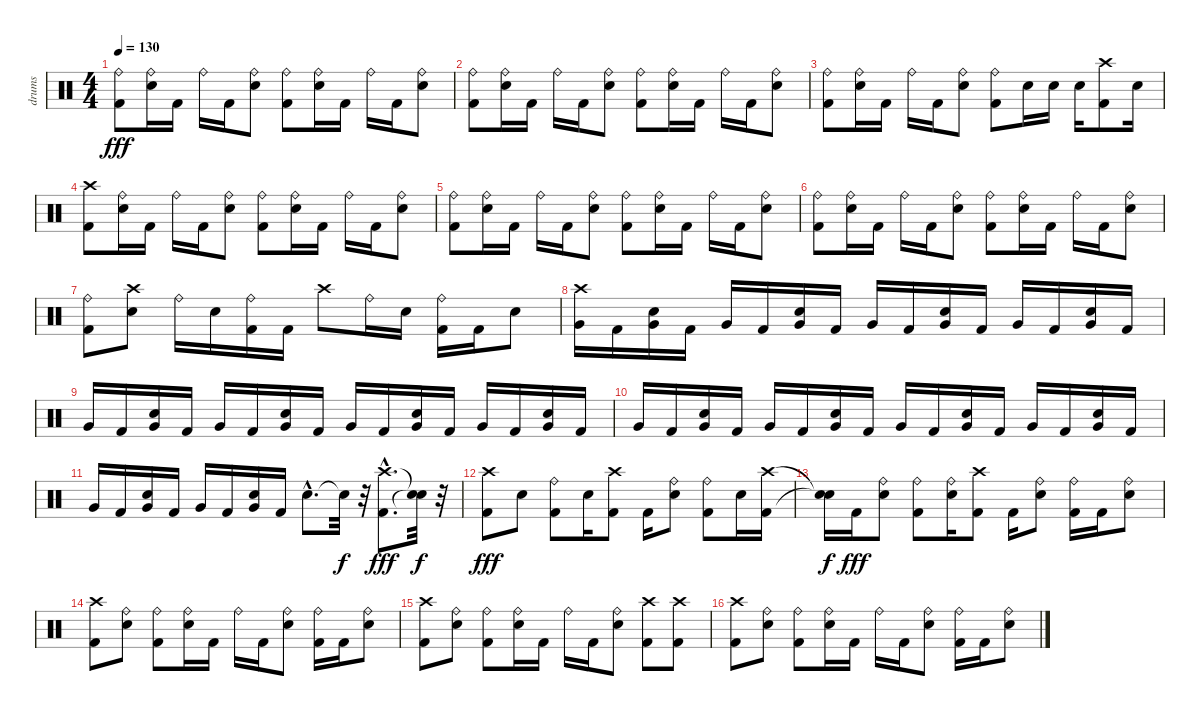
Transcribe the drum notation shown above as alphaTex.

\track ("drums" "drums") {instrument percussion}
\staff {score}
\articulation defaults
\ts (4 4)
\tempo 130
\clef neutral
\ks c
("Ride (bell)" "Kick (hit) 2").8{dy fff} ("Ride (bell)" "Snare (hit) 2").16 "Kick (hit) 2".16 "Ride (bell)".16 "Kick (hit) 2".16 ("Ride (bell)" "Snare (hit) 2").8 ("Ride (bell)" "Kick (hit) 2").8 ("Ride (bell)" "Snare (hit) 2").16 "Kick (hit) 2".16 "Ride (bell)".16 "Kick (hit) 2".16 ("Ride (bell)" "Snare (hit) 2").8 |
("Ride (bell)" "Kick (hit) 2").8 ("Ride (bell)" "Snare (hit) 2").16 "Kick (hit) 2".16 "Ride (bell)".16 "Kick (hit) 2".16 ("Ride (bell)" "Snare (hit) 2").8 ("Ride (bell)" "Kick (hit) 2").8 ("Ride (bell)" "Snare (hit) 2").16 "Kick (hit) 2".16 "Ride (bell)".16 "Kick (hit) 2".16 ("Ride (bell)" "Snare (hit) 2").8 |
("Ride (bell)" "Kick (hit) 2").8 ("Ride (bell)" "Snare (hit) 2").16 "Kick (hit) 2".16 "Ride (bell)".16 "Kick (hit) 2".16 ("Ride (bell)" "Snare (hit) 2").8 ("Ride (bell)" "Kick (hit) 2").8 "Snare (hit) 2".16 "Snare (hit) 2".16 "Snare (hit) 2".16 ("Crash high (hit)" "Kick (hit) 2").8 "Snare (hit) 2".16 |
("Crash high (hit)" "Kick (hit) 2").8 ("Ride (bell)" "Snare (hit) 2").16 "Kick (hit) 2".16 "Ride (bell)".16 "Kick (hit) 2".16 ("Ride (bell)" "Snare (hit) 2").8 ("Ride (bell)" "Kick (hit) 2").8 ("Ride (bell)" "Snare (hit) 2").16 "Kick (hit) 2".16 "Ride (bell)".16 "Kick (hit) 2".16 ("Ride (bell)" "Snare (hit) 2").8 |
("Ride (bell)" "Kick (hit) 2").8 ("Ride (bell)" "Snare (hit) 2").16 "Kick (hit) 2".16 "Ride (bell)".16 "Kick (hit) 2".16 ("Ride (bell)" "Snare (hit) 2").8 ("Ride (bell)" "Kick (hit) 2").8 ("Ride (bell)" "Snare (hit) 2").16 "Kick (hit) 2".16 "Ride (bell)".16 "Kick (hit) 2".16 ("Ride (bell)" "Snare (hit) 2").8 |
("Ride (bell)" "Kick (hit) 2").8 ("Ride (bell)" "Snare (hit) 2").16 "Kick (hit) 2".16 "Ride (bell)".16 "Kick (hit) 2".16 ("Ride (bell)" "Snare (hit) 2").8 ("Ride (bell)" "Kick (hit) 2").8 ("Ride (bell)" "Snare (hit) 2").16 "Kick (hit) 2".16 "Ride (bell)".16 "Kick (hit) 2".16 ("Ride (bell)" "Snare (hit) 2").8 |
("Ride (bell)" "Kick (hit) 2").8 ("Crash high (hit)" "Snare (hit) 2").8 "Ride (bell)".16 "Snare (hit) 2".16 ("Ride (bell)" "Kick (hit) 2").16 "Kick (hit) 2".16 "Crash high (hit)".8 "Ride (bell)".16 "Snare (hit) 2".16 ("Ride (bell)" "Kick (hit) 2").16 "Kick (hit) 2".16 "Snare (hit) 2".8 |
("Crash high (hit)" "Very Low Tom (hit)").16 "Kick (hit) 2".16 ("Snare (hit) 2" "Very Low Tom (hit)").16 "Kick (hit) 2".16 "Very Low Tom (hit)".16 "Kick (hit) 2".16 ("Very Low Tom (hit)" "Snare (hit) 2").16 "Kick (hit) 2".16 "Very Low Tom (hit)".16 "Kick (hit) 2".16 ("Snare (hit) 2" "Very Low Tom (hit)").16 "Kick (hit) 2".16 "Very Low Tom (hit)".16 "Kick (hit) 2".16 ("Very Low Tom (hit)" "Snare (hit) 2").16 "Kick (hit) 2".16 |
"Very Low Tom (hit)".16 "Kick (hit) 2".16 ("Snare (hit) 2" "Very Low Tom (hit)").16 "Kick (hit) 2".16 "Very Low Tom (hit)".16 "Kick (hit) 2".16 ("Very Low Tom (hit)" "Snare (hit) 2").16 "Kick (hit) 2".16 "Very Low Tom (hit)".16 "Kick (hit) 2".16 ("Snare (hit) 2" "Very Low Tom (hit)").16 "Kick (hit) 2".16 "Very Low Tom (hit)".16 "Kick (hit) 2".16 ("Very Low Tom (hit)" "Snare (hit) 2").16 "Kick (hit) 2".16 |
"Very Low Tom (hit)".16 "Kick (hit) 2".16 ("Snare (hit) 2" "Very Low Tom (hit)").16 "Kick (hit) 2".16 "Very Low Tom (hit)".16 "Kick (hit) 2".16 ("Very Low Tom (hit)" "Snare (hit) 2").16 "Kick (hit) 2".16 "Very Low Tom (hit)".16 "Kick (hit) 2".16 ("Snare (hit) 2" "Very Low Tom (hit)").16 "Kick (hit) 2".16 "Very Low Tom (hit)".16 "Kick (hit) 2".16 ("Very Low Tom (hit)" "Snare (hit) 2").16 "Kick (hit) 2".16 |
"Very Low Tom (hit)".16 "Kick (hit) 2".16 ("Snare (hit) 2" "Very Low Tom (hit)").16 "Kick (hit) 2".16 "Very Low Tom (hit)".16 "Kick (hit) 2".16 ("Very Low Tom (hit)" "Snare (hit) 2").16 "Kick (hit) 2".16 "Snare (hit) 2"{hac}.8{d} "Snare (hit)"{t}.32{dy f} r.32 ("Crash high (hit)"{hac} "Kick (hit) 2"{hac}).8{d dy fff} ("Snare (hit)"{t} "Snare (hit)"{t}).32{dy f} r.32 |
("Crash high (hit)" "Kick (hit) 2").8{dy fff} "Snare (hit) 2".8 ("Ride (bell)" "Kick (hit) 2").8 "Snare (hit) 2".16 ("Crash high (hit)" "Kick (hit) 2").8 "Kick (hit) 2".16 ("Ride (bell)" "Snare (hit) 2").8 ("Ride (bell)" "Kick (hit) 2").8 "Snare (hit) 2".16 ("Crash high (hit)" "Kick (hit) 2").16 |
("Snare (hit)"{t} "Snare (hit)"{t}).16{dy f} "Kick (hit) 2".16{dy fff} ("Ride (bell)" "Snare (hit) 2").8 ("Ride (bell)" "Kick (hit) 2").8 ("Ride (bell)" "Snare (hit) 2").16 ("Crash high (hit)" "Kick (hit) 2").8 "Kick (hit) 2".16 ("Ride (bell)" "Snare (hit) 2").8 ("Ride (bell)" "Kick (hit) 2").16 "Kick (hit) 2".16 ("Ride (bell)" "Snare (hit) 2").8 |
("Crash high (hit)" "Kick (hit) 2").8 ("Ride (bell)" "Snare (hit) 2").8 ("Ride (bell)" "Kick (hit) 2").8 ("Ride (bell)" "Snare (hit) 2").16 "Kick (hit) 2".16 "Ride (bell)".16 "Kick (hit) 2".16 ("Ride (bell)" "Snare (hit) 2").8 ("Ride (bell)" "Kick (hit) 2").16 "Kick (hit) 2".16 ("Ride (bell)" "Snare (hit) 2").8 |
("Crash high (hit)" "Kick (hit) 2").8 ("Ride (bell)" "Snare (hit) 2").8 ("Ride (bell)" "Kick (hit) 2").8 ("Ride (bell)" "Snare (hit) 2").16 "Kick (hit) 2".16 "Ride (bell)".16 "Kick (hit) 2".16 ("Ride (bell)" "Snare (hit) 2").8 ("Crash high (hit)" "Kick (hit) 2").8 ("Crash high (hit)" "Kick (hit) 2").8 |
("Crash high (hit)" "Kick (hit) 2").8 ("Ride (bell)" "Snare (hit) 2").8 ("Ride (bell)" "Kick (hit) 2").8 ("Ride (bell)" "Snare (hit) 2").16 "Kick (hit) 2".16 "Ride (bell)".16 "Kick (hit) 2".16 ("Ride (bell)" "Snare (hit) 2").8 ("Ride (bell)" "Kick (hit) 2").16 "Kick (hit) 2".16 ("Ride (bell)" "Snare (hit) 2").8
